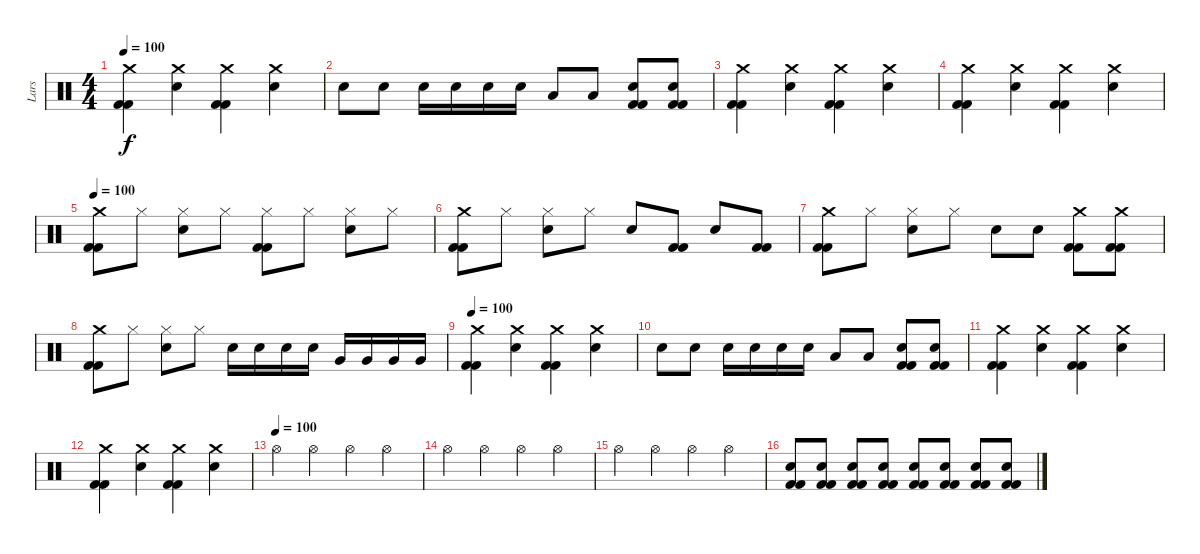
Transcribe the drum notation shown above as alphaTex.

\track ("Lars" "Lars") {instrument percussion}
\staff {score}
\articulation defaults
\ts (4 4)
\tempo 100
\clef neutral
\ks c
("Crash medium (hit)" "Kick (hit) 2" "Kick (hit) 2").4{dy f} ("Electric Snare (hit)" "Crash medium (hit)").4 ("Crash medium (hit)" "Kick (hit) 2" "Kick (hit) 2").4 ("Electric Snare (hit)" "Crash medium (hit)").4 |
"Electric Snare (hit)".8 "Electric Snare (hit)".8 "Electric Snare (hit)".16 "Electric Snare (hit)".16 "Electric Snare (hit)".16 "Electric Snare (hit)".16 "Low Tom (hit)".8 "Low Tom (hit)".8 ("Kick (hit) 2" "Kick (hit) 2" "Electric Snare (hit)").8 ("Electric Snare (hit)" "Kick (hit) 2" "Kick (hit) 2").8 |
("Crash medium (hit)" "Kick (hit) 2" "Kick (hit) 2").4 ("Electric Snare (hit)" "Crash medium (hit)").4 ("Crash medium (hit)" "Kick (hit) 2" "Kick (hit) 2").4 ("Electric Snare (hit)" "Crash medium (hit)").4 |
("Crash medium (hit)" "Kick (hit) 2" "Kick (hit) 2").4 ("Electric Snare (hit)" "Crash medium (hit)").4 ("Crash medium (hit)" "Kick (hit) 2" "Kick (hit) 2").4 ("Electric Snare (hit)" "Crash medium (hit)").4 |
\tempo 100
("Crash medium (hit)" "Kick (hit) 2" "Kick (hit) 2").8 "Hi-Hat (closed)".8 ("Electric Snare (hit)" "Hi-Hat (closed)").8 "Hi-Hat (closed)".8 ("Kick (hit) 2" "Kick (hit) 2" "Hi-Hat (closed)").8 "Hi-Hat (closed)".8 ("Hi-Hat (closed)" "Electric Snare (hit)").8 "Hi-Hat (closed)".8 |
("Crash medium (hit)" "Kick (hit) 2" "Kick (hit) 2").8 "Hi-Hat (closed)".8 ("Electric Snare (hit)" "Hi-Hat (closed)").8 "Hi-Hat (closed)".8 "Electric Snare (hit)".8 ("Kick (hit) 2" "Kick (hit) 2").8 "Electric Snare (hit)".8 ("Kick (hit) 2" "Kick (hit) 2").8 |
("Crash medium (hit)" "Kick (hit) 2" "Kick (hit) 2").8 "Hi-Hat (closed)".8 ("Electric Snare (hit)" "Hi-Hat (closed)").8 "Hi-Hat (closed)".8 "Electric Snare (hit)".8 "Electric Snare (hit)".8 ("Crash medium (hit)" "Kick (hit) 2" "Kick (hit) 2").8 ("Kick (hit) 2" "Kick (hit) 2" "Crash medium (hit)").8 |
("Crash medium (hit)" "Kick (hit) 2" "Kick (hit) 2").8 "Hi-Hat (closed)".8 ("Electric Snare (hit)" "Hi-Hat (closed)").8 "Hi-Hat (closed)".8 "Electric Snare (hit)".16 "Electric Snare (hit)".16 "Electric Snare (hit)".16 "Electric Snare (hit)".16 "Very Low Tom (hit)".16 "Very Low Tom (hit)".16 "Very Low Tom (hit)".16 "Very Low Tom (hit)".16 |
\tempo 100
("Crash medium (hit)" "Kick (hit) 2" "Kick (hit) 2").4 ("Electric Snare (hit)" "Crash medium (hit)").4 ("Crash medium (hit)" "Kick (hit) 2" "Kick (hit) 2").4 ("Electric Snare (hit)" "Crash medium (hit)").4 |
"Electric Snare (hit)".8 "Electric Snare (hit)".8 "Electric Snare (hit)".16 "Electric Snare (hit)".16 "Electric Snare (hit)".16 "Electric Snare (hit)".16 "Low Tom (hit)".8 "Low Tom (hit)".8 ("Kick (hit) 2" "Kick (hit) 2" "Electric Snare (hit)").8 ("Electric Snare (hit)" "Kick (hit) 2" "Kick (hit) 2").8 |
("Crash medium (hit)" "Kick (hit) 2" "Kick (hit) 2").4 ("Electric Snare (hit)" "Crash medium (hit)").4 ("Crash medium (hit)" "Kick (hit) 2" "Kick (hit) 2").4 ("Electric Snare (hit)" "Crash medium (hit)").4 |
("Crash medium (hit)" "Kick (hit) 2" "Kick (hit) 2").4 ("Electric Snare (hit)" "Crash medium (hit)").4 ("Crash medium (hit)" "Kick (hit) 2" "Kick (hit) 2").4 ("Electric Snare (hit)" "Crash medium (hit)").4 |
\tempo (100)
"Hi-Hat (open)".4 "Hi-Hat (open)".4 "Hi-Hat (open)".4 "Hi-Hat (open)".4 |
"Hi-Hat (open)".4 "Hi-Hat (open)".4 "Hi-Hat (open)".4 "Hi-Hat (open)".4 |
"Hi-Hat (open)".4 "Hi-Hat (open)".4 "Hi-Hat (open)".4 "Hi-Hat (open)".4 |
("Kick (hit) 2" "Kick (hit) 2" "Electric Snare (hit)").8{volume 4} ("Kick (hit) 2" "Kick (hit) 2" "Electric Snare (hit)").8{volume 6} ("Kick (hit) 2" "Kick (hit) 2" "Electric Snare (hit)").8{volume 8} ("Kick (hit) 2" "Kick (hit) 2" "Electric Snare (hit)").8{volume 10} ("Kick (hit) 2" "Kick (hit) 2" "Electric Snare (hit)").8{volume 13} ("Kick (hit) 2" "Kick (hit) 2" "Electric Snare (hit)").8{volume 13} ("Kick (hit) 2" "Kick (hit) 2" "Electric Snare (hit)").8{volume 13} ("Kick (hit) 2" "Kick (hit) 2" "Electric Snare (hit)").8{volume 13}
